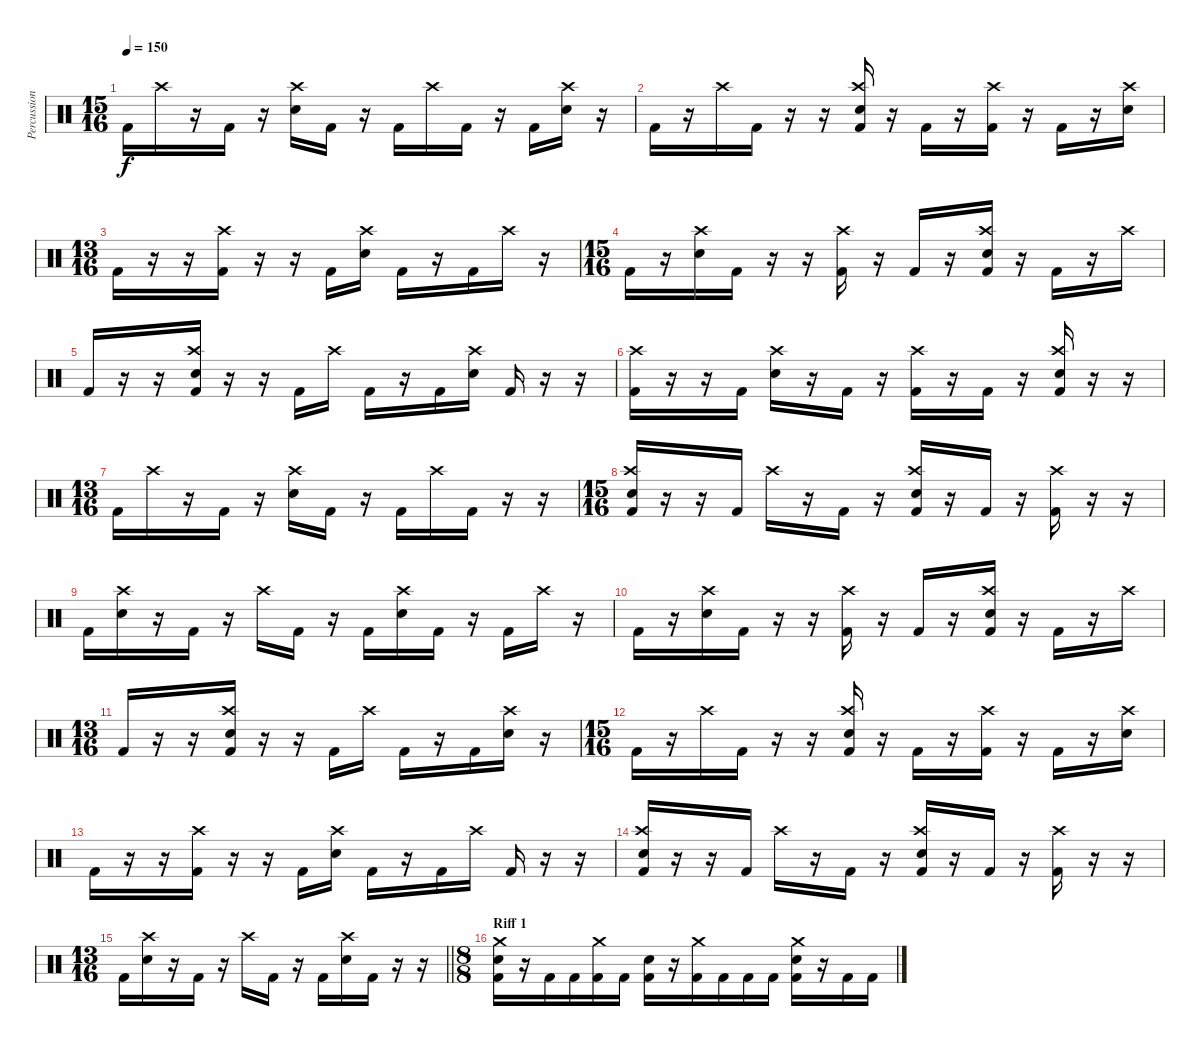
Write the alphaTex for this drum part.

\track ("Percussions" "Percussion") {instrument percussion}
\staff {score}
\articulation defaults
\ts (15 16)
\tempo 150
\clef neutral
\ks c "Kick (hit) 2".16{dy f} "Crash high (hit)".16
r.16 "Kick (hit) 2".16 r.16 ("Crash high (hit)" "Electric Snare (hit)").16 "Kick (hit) 2".16 r.16 "Kick (hit) 2".16 "Crash high (hit)".16 "Kick (hit) 2".16 r.16 "Kick (hit) 2".16 ("Crash high (hit)" "Electric Snare (hit)").16 r.16 |
"Kick (hit) 2".16 r.16 "Crash high (hit)".16 "Kick (hit) 2".16 r.16 r.16 ("Crash high (hit)" "Electric Snare (hit)" "Kick (hit) 2").16 r.16 "Kick (hit) 2".16 r.16 ("Crash high (hit)" "Kick (hit) 2").16 r.16 "Kick (hit) 2".16 r.16 ("Crash high (hit)" "Electric Snare (hit)").16 |
\ts (13 16)
"Kick (hit) 2".16 r.16 r.16 ("Crash high (hit)" "Kick (hit) 2").16 r.16 r.16 "Kick (hit) 2".16 ("Crash high (hit)" "Electric Snare (hit)").16 "Kick (hit) 2".16 r.16 "Kick (hit) 2".16 "Crash high (hit)".16 r.16 |
\ts (15 16)
"Kick (hit) 2".16 r.16 ("Crash high (hit)" "Electric Snare (hit)").16 "Kick (hit) 2".16 r.16 r.16 ("Crash high (hit)" "Kick (hit) 2").16 r.16 "Kick (hit) 2".16 r.16 ("Crash high (hit)" "Electric Snare (hit)" "Kick (hit) 2").16 r.16 "Kick (hit) 2".16 r.16 "Crash high (hit)".16 |
"Kick (hit) 2".16 r.16 r.16 ("Crash high (hit)" "Electric Snare (hit)" "Kick (hit) 2").16 r.16 r.16 "Kick (hit) 2".16 "Crash high (hit)".16 "Kick (hit) 2".16 r.16 "Kick (hit) 2".16 ("Crash high (hit)" "Electric Snare (hit)").16 "Kick (hit) 2".16 r.16 r.16 |
("Crash high (hit)" "Kick (hit) 2").16 r.16 r.16 "Kick (hit) 2".16 ("Crash high (hit)" "Electric Snare (hit)").16 r.16 "Kick (hit) 2".16 r.16 ("Crash high (hit)" "Kick (hit) 2").16 r.16 "Kick (hit) 2".16 r.16 ("Crash high (hit)" "Electric Snare (hit)" "Kick (hit) 2").16 r.16 r.16 |
\ts (13 16)
"Kick (hit) 2".16 "Crash high (hit)".16 r.16 "Kick (hit) 2".16 r.16 ("Crash high (hit)" "Electric Snare (hit)").16 "Kick (hit) 2".16 r.16 "Kick (hit) 2".16 "Crash high (hit)".16 "Kick (hit) 2".16 r.16 r.16 |
\ts (15 16)
("Crash high (hit)" "Electric Snare (hit)" "Kick (hit) 2").16 r.16 r.16 "Kick (hit) 2".16 "Crash high (hit)".16 r.16 "Kick (hit) 2".16 r.16 ("Crash high (hit)" "Electric Snare (hit)" "Kick (hit) 2").16 r.16 "Kick (hit) 2".16 r.16 ("Crash high (hit)" "Kick (hit) 2").16 r.16 r.16 |
"Kick (hit) 2".16 ("Crash high (hit)" "Electric Snare (hit)").16 r.16 "Kick (hit) 2".16 r.16 "Crash high (hit)".16 "Kick (hit) 2".16 r.16 "Kick (hit) 2".16 ("Crash high (hit)" "Electric Snare (hit)").16 "Kick (hit) 2".16 r.16 "Kick (hit) 2".16 "Crash high (hit)".16 r.16 |
"Kick (hit) 2".16 r.16 ("Crash high (hit)" "Electric Snare (hit)").16 "Kick (hit) 2".16 r.16 r.16 ("Crash high (hit)" "Kick (hit) 2").16 r.16 "Kick (hit) 2".16 r.16 ("Crash high (hit)" "Electric Snare (hit)" "Kick (hit) 2").16 r.16 "Kick (hit) 2".16 r.16 "Crash high (hit)".16 |
\ts (13 16)
"Kick (hit) 2".16 r.16 r.16 ("Crash high (hit)" "Electric Snare (hit)" "Kick (hit) 2").16 r.16 r.16 "Kick (hit) 2".16 "Crash high (hit)".16 "Kick (hit) 2".16 r.16 "Kick (hit) 2".16 ("Crash high (hit)" "Electric Snare (hit)").16 r.16 |
\ts (15 16)
"Kick (hit) 2".16 r.16 "Crash high (hit)".16 "Kick (hit) 2".16 r.16 r.16 ("Crash high (hit)" "Electric Snare (hit)" "Kick (hit) 2").16 r.16 "Kick (hit) 2".16 r.16 ("Crash high (hit)" "Kick (hit) 2").16 r.16 "Kick (hit) 2".16 r.16 ("Crash high (hit)" "Electric Snare (hit)").16 |
"Kick (hit) 2".16 r.16 r.16 ("Crash high (hit)" "Kick (hit) 2").16 r.16 r.16 "Kick (hit) 2".16 ("Crash high (hit)" "Electric Snare (hit)").16 "Kick (hit) 2".16 r.16 "Kick (hit) 2".16 "Crash high (hit)".16 "Kick (hit) 2".16 r.16 r.16 |
("Crash high (hit)" "Electric Snare (hit)" "Kick (hit) 2").16 r.16 r.16 "Kick (hit) 2".16 "Crash high (hit)".16 r.16 "Kick (hit) 2".16 r.16 ("Crash high (hit)" "Electric Snare (hit)" "Kick (hit) 2").16 r.16 "Kick (hit) 2".16 r.16 ("Crash high (hit)" "Kick (hit) 2").16 r.16 r.16 |
\ts (13 16)
\barLineRight lightlight "Kick (hit) 2".16
("Crash high (hit)" "Electric Snare (hit)").16 r.16 "Kick (hit) 2".16 r.16 "Crash high (hit)".16 "Kick (hit) 2".16 r.16 "Kick (hit) 2".16 ("Crash high (hit)" "Electric Snare (hit)").16 "Kick (hit) 2".16 r.16 r.16 |
\ts (8 8)
\section ("" "Riff 1")
("Crash medium (hit)" "Electric Snare (hit)" "Kick (hit) 2").16 r.16 "Kick (hit) 2".16 "Kick (hit) 2".16 ("Crash medium (hit)" "Kick (hit) 2").16 "Kick (hit) 2".16 ("Electric Snare (hit)" "Kick (hit) 2").16 r.16 ("Crash medium (hit)" "Kick (hit) 2").16 "Kick (hit) 2".16 "Kick (hit) 2".16 "Kick (hit) 2".16 ("Crash medium (hit)" "Electric Snare (hit)" "Kick (hit) 2").16 r.16 "Kick (hit) 2".16 "Kick (hit) 2".16
